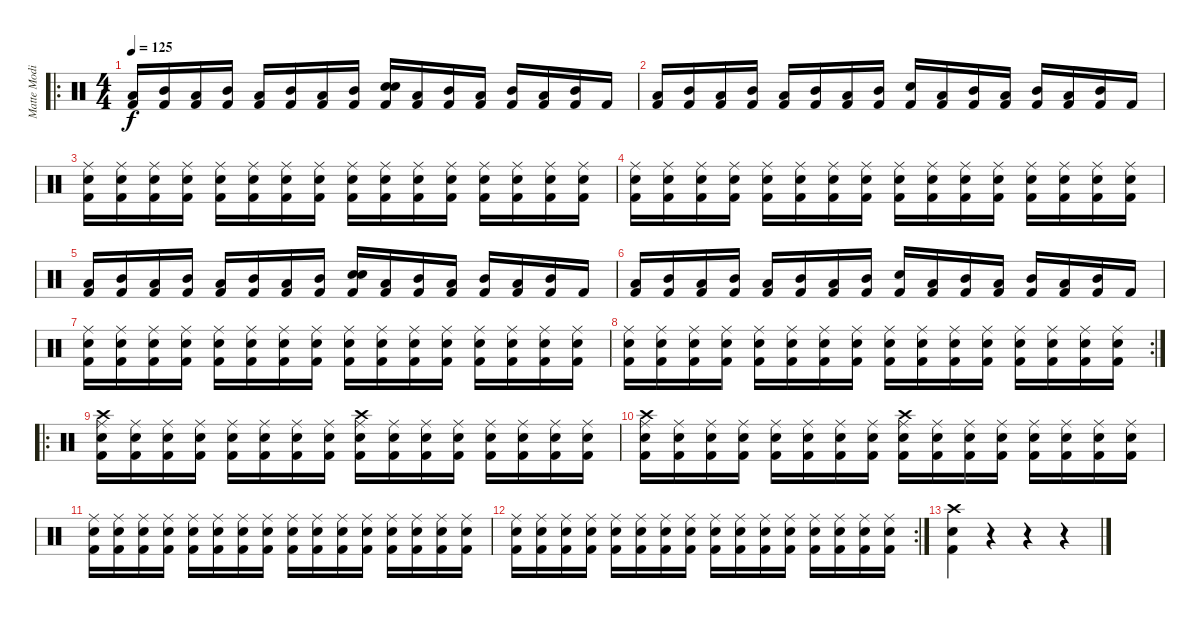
\track ("Matte Modin" "Matte Modi") {instrument percussion}
\staff {score}
\articulation defaults
\ro
\ts (4 4)
\tempo 125
\clef neutral
\ks c
("Low Tom (hit)" "Kick (hit) 2").16{dy f} ("Mid Tom (hit)" "Kick (hit) 2").16 ("Low Tom (hit)" "Kick (hit) 2").16 ("Mid Tom (hit)" "Kick (hit) 2").16 ("Low Tom (hit)" "Kick (hit) 2").16 ("Mid Tom (hit)" "Kick (hit) 2").16 ("Low Tom (hit)" "Kick (hit) 2").16 ("Mid Tom (hit)" "Kick (hit) 2").16 ("Electric Snare (hit)" "Electric Snare (hit)" "Kick (hit) 2").16 ("Low Tom (hit)" "Kick (hit) 2").16 ("Mid Tom (hit)" "Kick (hit) 2").16 ("Low Tom (hit)" "Kick (hit) 2").16 ("Mid Tom (hit)" "Kick (hit) 2").16 ("Low Tom (hit)" "Kick (hit) 2").16 ("Mid Tom (hit)" "Kick (hit) 2").16 "Kick (hit) 2".16 |
("Low Tom (hit)" "Kick (hit) 2").16 ("Mid Tom (hit)" "Kick (hit) 2").16 ("Low Tom (hit)" "Kick (hit) 2").16 ("Mid Tom (hit)" "Kick (hit) 2").16 ("Low Tom (hit)" "Kick (hit) 2").16 ("Mid Tom (hit)" "Kick (hit) 2").16 ("Low Tom (hit)" "Kick (hit) 2").16 ("Mid Tom (hit)" "Kick (hit) 2").16 ("Electric Snare (hit)" "Kick (hit) 2").16 ("Low Tom (hit)" "Kick (hit) 2").16 ("Mid Tom (hit)" "Kick (hit) 2").16 ("Low Tom (hit)" "Kick (hit) 2").16 ("Mid Tom (hit)" "Kick (hit) 2").16 ("Low Tom (hit)" "Kick (hit) 2").16 ("Mid Tom (hit)" "Kick (hit) 2").16 "Kick (hit) 2".16 |
("Kick (hit) 2" "Ride (middle)" "Electric Snare (hit)").16 ("Kick (hit) 2" "Ride (middle)" "Electric Snare (hit)").16 ("Kick (hit) 2" "Ride (middle)" "Electric Snare (hit)").16 ("Kick (hit) 2" "Ride (middle)" "Electric Snare (hit)").16 ("Kick (hit) 2" "Ride (middle)" "Electric Snare (hit)").16 ("Kick (hit) 2" "Ride (middle)" "Electric Snare (hit)").16 ("Kick (hit) 2" "Ride (middle)" "Electric Snare (hit)").16 ("Kick (hit) 2" "Ride (middle)" "Electric Snare (hit)").16 ("Kick (hit) 2" "Ride (middle)" "Electric Snare (hit)").16 ("Kick (hit) 2" "Ride (middle)" "Electric Snare (hit)").16 ("Kick (hit) 2" "Ride (middle)" "Electric Snare (hit)").16 ("Kick (hit) 2" "Ride (middle)" "Electric Snare (hit)").16 ("Kick (hit) 2" "Ride (middle)" "Electric Snare (hit)").16 ("Kick (hit) 2" "Ride (middle)" "Electric Snare (hit)").16 ("Kick (hit) 2" "Ride (middle)" "Electric Snare (hit)").16 ("Kick (hit) 2" "Ride (middle)" "Electric Snare (hit)").16 |
("Kick (hit) 2" "Ride (middle)" "Electric Snare (hit)").16 ("Kick (hit) 2" "Ride (middle)" "Electric Snare (hit)").16 ("Kick (hit) 2" "Ride (middle)" "Electric Snare (hit)").16 ("Kick (hit) 2" "Ride (middle)" "Electric Snare (hit)").16 ("Kick (hit) 2" "Ride (middle)" "Electric Snare (hit)").16 ("Kick (hit) 2" "Ride (middle)" "Electric Snare (hit)").16 ("Kick (hit) 2" "Ride (middle)" "Electric Snare (hit)").16 ("Kick (hit) 2" "Ride (middle)" "Electric Snare (hit)").16 ("Kick (hit) 2" "Ride (middle)" "Electric Snare (hit)").16 ("Kick (hit) 2" "Ride (middle)" "Electric Snare (hit)").16 ("Kick (hit) 2" "Ride (middle)" "Electric Snare (hit)").16 ("Kick (hit) 2" "Ride (middle)" "Electric Snare (hit)").16 ("Kick (hit) 2" "Ride (middle)" "Electric Snare (hit)").16 ("Kick (hit) 2" "Ride (middle)" "Electric Snare (hit)").16 ("Kick (hit) 2" "Ride (middle)" "Electric Snare (hit)").16 ("Kick (hit) 2" "Ride (middle)" "Electric Snare (hit)").16 |
("Low Tom (hit)" "Kick (hit) 2").16 ("Mid Tom (hit)" "Kick (hit) 2").16 ("Low Tom (hit)" "Kick (hit) 2").16 ("Mid Tom (hit)" "Kick (hit) 2").16 ("Low Tom (hit)" "Kick (hit) 2").16 ("Mid Tom (hit)" "Kick (hit) 2").16 ("Low Tom (hit)" "Kick (hit) 2").16 ("Mid Tom (hit)" "Kick (hit) 2").16 ("Electric Snare (hit)" "Electric Snare (hit)" "Kick (hit) 2").16 ("Low Tom (hit)" "Kick (hit) 2").16 ("Mid Tom (hit)" "Kick (hit) 2").16 ("Low Tom (hit)" "Kick (hit) 2").16 ("Mid Tom (hit)" "Kick (hit) 2").16 ("Low Tom (hit)" "Kick (hit) 2").16 ("Mid Tom (hit)" "Kick (hit) 2").16 "Kick (hit) 2".16 |
("Low Tom (hit)" "Kick (hit) 2").16 ("Mid Tom (hit)" "Kick (hit) 2").16 ("Low Tom (hit)" "Kick (hit) 2").16 ("Mid Tom (hit)" "Kick (hit) 2").16 ("Low Tom (hit)" "Kick (hit) 2").16 ("Mid Tom (hit)" "Kick (hit) 2").16 ("Low Tom (hit)" "Kick (hit) 2").16 ("Mid Tom (hit)" "Kick (hit) 2").16 ("Electric Snare (hit)" "Kick (hit) 2").16 ("Low Tom (hit)" "Kick (hit) 2").16 ("Mid Tom (hit)" "Kick (hit) 2").16 ("Low Tom (hit)" "Kick (hit) 2").16 ("Mid Tom (hit)" "Kick (hit) 2").16 ("Low Tom (hit)" "Kick (hit) 2").16 ("Mid Tom (hit)" "Kick (hit) 2").16 "Kick (hit) 2".16 |
("Kick (hit) 2" "Ride (middle)" "Electric Snare (hit)").16 ("Kick (hit) 2" "Ride (middle)" "Electric Snare (hit)").16 ("Kick (hit) 2" "Ride (middle)" "Electric Snare (hit)").16 ("Kick (hit) 2" "Ride (middle)" "Electric Snare (hit)").16 ("Kick (hit) 2" "Ride (middle)" "Electric Snare (hit)").16 ("Kick (hit) 2" "Ride (middle)" "Electric Snare (hit)").16 ("Kick (hit) 2" "Ride (middle)" "Electric Snare (hit)").16 ("Kick (hit) 2" "Ride (middle)" "Electric Snare (hit)").16 ("Kick (hit) 2" "Ride (middle)" "Electric Snare (hit)").16 ("Kick (hit) 2" "Ride (middle)" "Electric Snare (hit)").16 ("Kick (hit) 2" "Ride (middle)" "Electric Snare (hit)").16 ("Kick (hit) 2" "Ride (middle)" "Electric Snare (hit)").16 ("Kick (hit) 2" "Ride (middle)" "Electric Snare (hit)").16 ("Kick (hit) 2" "Ride (middle)" "Electric Snare (hit)").16 ("Kick (hit) 2" "Ride (middle)" "Electric Snare (hit)").16 ("Kick (hit) 2" "Ride (middle)" "Electric Snare (hit)").16 |
\rc 2
("Kick (hit) 2" "Ride (middle)" "Electric Snare (hit)").16 ("Kick (hit) 2" "Ride (middle)" "Electric Snare (hit)").16 ("Kick (hit) 2" "Ride (middle)" "Electric Snare (hit)").16 ("Kick (hit) 2" "Ride (middle)" "Electric Snare (hit)").16 ("Kick (hit) 2" "Ride (middle)" "Electric Snare (hit)").16 ("Kick (hit) 2" "Ride (middle)" "Electric Snare (hit)").16 ("Kick (hit) 2" "Ride (middle)" "Electric Snare (hit)").16 ("Kick (hit) 2" "Ride (middle)" "Electric Snare (hit)").16 ("Kick (hit) 2" "Ride (middle)" "Electric Snare (hit)").16 ("Kick (hit) 2" "Ride (middle)" "Electric Snare (hit)").16 ("Kick (hit) 2" "Ride (middle)" "Electric Snare (hit)").16 ("Kick (hit) 2" "Ride (middle)" "Electric Snare (hit)").16 ("Kick (hit) 2" "Ride (middle)" "Electric Snare (hit)").16 ("Kick (hit) 2" "Ride (middle)" "Electric Snare (hit)").16 ("Kick (hit) 2" "Ride (middle)" "Electric Snare (hit)").16 ("Kick (hit) 2" "Ride (middle)" "Electric Snare (hit)").16 |
\ro
("Crash high (hit)" "Kick (hit) 2" "Ride (middle)" "Electric Snare (hit)").16 ("Kick (hit) 2" "Ride (middle)" "Electric Snare (hit)").16 ("Kick (hit) 2" "Ride (middle)" "Electric Snare (hit)").16 ("Kick (hit) 2" "Ride (middle)" "Electric Snare (hit)").16 ("Kick (hit) 2" "Ride (middle)" "Electric Snare (hit)").16 ("Kick (hit) 2" "Ride (middle)" "Electric Snare (hit)").16 ("Kick (hit) 2" "Ride (middle)" "Electric Snare (hit)").16 ("Kick (hit) 2" "Ride (middle)" "Electric Snare (hit)").16 ("Crash high (hit)" "Kick (hit) 2" "Ride (middle)" "Electric Snare (hit)").16 ("Kick (hit) 2" "Ride (middle)" "Electric Snare (hit)").16 ("Kick (hit) 2" "Ride (middle)" "Electric Snare (hit)").16 ("Kick (hit) 2" "Ride (middle)" "Electric Snare (hit)").16 ("Kick (hit) 2" "Ride (middle)" "Electric Snare (hit)").16 ("Kick (hit) 2" "Ride (middle)" "Electric Snare (hit)").16 ("Kick (hit) 2" "Ride (middle)" "Electric Snare (hit)").16 ("Kick (hit) 2" "Ride (middle)" "Electric Snare (hit)").16 |
("Crash high (hit)" "Kick (hit) 2" "Ride (middle)" "Electric Snare (hit)").16 ("Kick (hit) 2" "Ride (middle)" "Electric Snare (hit)").16 ("Kick (hit) 2" "Ride (middle)" "Electric Snare (hit)").16 ("Kick (hit) 2" "Ride (middle)" "Electric Snare (hit)").16 ("Kick (hit) 2" "Ride (middle)" "Electric Snare (hit)").16 ("Kick (hit) 2" "Ride (middle)" "Electric Snare (hit)").16 ("Kick (hit) 2" "Ride (middle)" "Electric Snare (hit)").16 ("Kick (hit) 2" "Ride (middle)" "Electric Snare (hit)").16 ("Crash high (hit)" "Kick (hit) 2" "Ride (middle)" "Electric Snare (hit)").16 ("Kick (hit) 2" "Ride (middle)" "Electric Snare (hit)").16 ("Kick (hit) 2" "Ride (middle)" "Electric Snare (hit)").16 ("Kick (hit) 2" "Ride (middle)" "Electric Snare (hit)").16 ("Kick (hit) 2" "Ride (middle)" "Electric Snare (hit)").16 ("Kick (hit) 2" "Ride (middle)" "Electric Snare (hit)").16 ("Kick (hit) 2" "Ride (middle)" "Electric Snare (hit)").16 ("Kick (hit) 2" "Ride (middle)" "Electric Snare (hit)").16 |
("Kick (hit) 2" "Ride (middle)" "Electric Snare (hit)").16 ("Kick (hit) 2" "Ride (middle)" "Electric Snare (hit)").16 ("Kick (hit) 2" "Ride (middle)" "Electric Snare (hit)").16 ("Kick (hit) 2" "Ride (middle)" "Electric Snare (hit)").16 ("Kick (hit) 2" "Ride (middle)" "Electric Snare (hit)").16 ("Kick (hit) 2" "Ride (middle)" "Electric Snare (hit)").16 ("Kick (hit) 2" "Ride (middle)" "Electric Snare (hit)").16 ("Kick (hit) 2" "Ride (middle)" "Electric Snare (hit)").16 ("Kick (hit) 2" "Ride (middle)" "Electric Snare (hit)").16 ("Kick (hit) 2" "Ride (middle)" "Electric Snare (hit)").16 ("Kick (hit) 2" "Ride (middle)" "Electric Snare (hit)").16 ("Kick (hit) 2" "Ride (middle)" "Electric Snare (hit)").16 ("Kick (hit) 2" "Ride (middle)" "Electric Snare (hit)").16 ("Kick (hit) 2" "Ride (middle)" "Electric Snare (hit)").16 ("Kick (hit) 2" "Ride (middle)" "Electric Snare (hit)").16 ("Kick (hit) 2" "Ride (middle)" "Electric Snare (hit)").16 |
\rc 2
("Kick (hit) 2" "Ride (middle)" "Electric Snare (hit)").16 ("Kick (hit) 2" "Ride (middle)" "Electric Snare (hit)").16 ("Kick (hit) 2" "Ride (middle)" "Electric Snare (hit)").16 ("Kick (hit) 2" "Ride (middle)" "Electric Snare (hit)").16 ("Kick (hit) 2" "Ride (middle)" "Electric Snare (hit)").16 ("Kick (hit) 2" "Ride (middle)" "Electric Snare (hit)").16 ("Kick (hit) 2" "Ride (middle)" "Electric Snare (hit)").16 ("Kick (hit) 2" "Ride (middle)" "Electric Snare (hit)").16 ("Kick (hit) 2" "Ride (middle)" "Electric Snare (hit)").16 ("Kick (hit) 2" "Ride (middle)" "Electric Snare (hit)").16 ("Kick (hit) 2" "Ride (middle)" "Electric Snare (hit)").16 ("Kick (hit) 2" "Ride (middle)" "Electric Snare (hit)").16 ("Kick (hit) 2" "Ride (middle)" "Electric Snare (hit)").16 ("Kick (hit) 2" "Ride (middle)" "Electric Snare (hit)").16 ("Kick (hit) 2" "Ride (middle)" "Electric Snare (hit)").16 ("Kick (hit) 2" "Ride (middle)" "Electric Snare (hit)").16 |
("Electric Snare (hit)" "Crash high (hit)" "Kick (hit) 2").4 r.4 r.4 r.4
